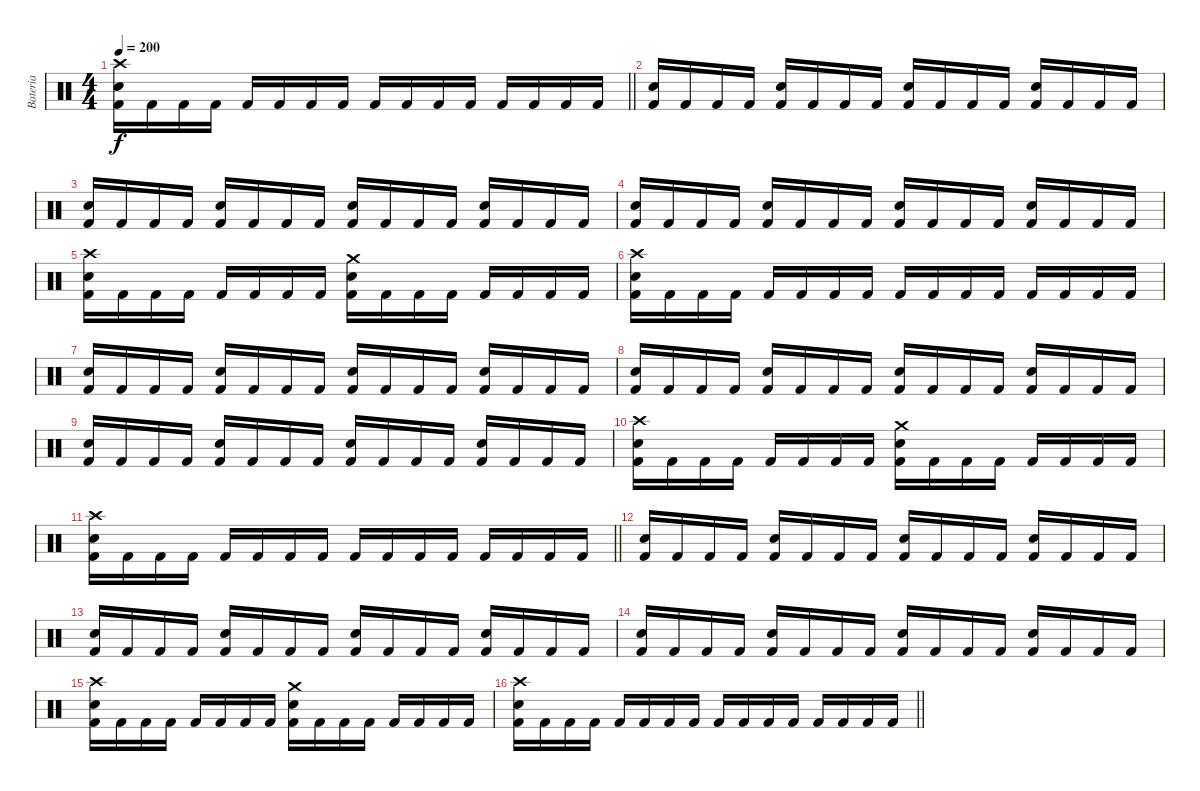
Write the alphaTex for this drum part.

\track ("Bateria" "Bateria") {instrument percussion}
\staff {score}
\articulation defaults
\ts (4 4)
\tempo 200
\clef neutral
\barLineRight lightlight
\ks c
("Crash high (hit)" "Electric Snare (hit)" "Kick (hit) 2").16{dy f} "Kick (hit) 2".16 "Kick (hit) 2".16 "Kick (hit) 2".16 "Kick (hit) 2".16 "Kick (hit) 2".16 "Kick (hit) 2".16 "Kick (hit) 2".16 "Kick (hit) 2".16 "Kick (hit) 2".16 "Kick (hit) 2".16 "Kick (hit) 2".16 "Kick (hit) 2".16 "Kick (hit) 2".16 "Kick (hit) 2".16 "Kick (hit) 2".16 |
("Electric Snare (hit)" "Kick (hit) 2").16 "Kick (hit) 2".16 "Kick (hit) 2".16 "Kick (hit) 2".16 ("Electric Snare (hit)" "Kick (hit) 2").16 "Kick (hit) 2".16 "Kick (hit) 2".16 "Kick (hit) 2".16 ("Electric Snare (hit)" "Kick (hit) 2").16 "Kick (hit) 2".16 "Kick (hit) 2".16 "Kick (hit) 2".16 ("Electric Snare (hit)" "Kick (hit) 2").16 "Kick (hit) 2".16 "Kick (hit) 2".16 "Kick (hit) 2".16 |
("Electric Snare (hit)" "Kick (hit) 2").16 "Kick (hit) 2".16 "Kick (hit) 2".16 "Kick (hit) 2".16 ("Electric Snare (hit)" "Kick (hit) 2").16 "Kick (hit) 2".16 "Kick (hit) 2".16 "Kick (hit) 2".16 ("Electric Snare (hit)" "Kick (hit) 2").16 "Kick (hit) 2".16 "Kick (hit) 2".16 "Kick (hit) 2".16 ("Electric Snare (hit)" "Kick (hit) 2").16 "Kick (hit) 2".16 "Kick (hit) 2".16 "Kick (hit) 2".16 |
("Electric Snare (hit)" "Kick (hit) 2").16 "Kick (hit) 2".16 "Kick (hit) 2".16 "Kick (hit) 2".16 ("Electric Snare (hit)" "Kick (hit) 2").16 "Kick (hit) 2".16 "Kick (hit) 2".16 "Kick (hit) 2".16 ("Electric Snare (hit)" "Kick (hit) 2").16 "Kick (hit) 2".16 "Kick (hit) 2".16 "Kick (hit) 2".16 ("Electric Snare (hit)" "Kick (hit) 2").16 "Kick (hit) 2".16 "Kick (hit) 2".16 "Kick (hit) 2".16 |
("Crash high (hit)" "Electric Snare (hit)" "Kick (hit) 2").16 "Kick (hit) 2".16 "Kick (hit) 2".16 "Kick (hit) 2".16 "Kick (hit) 2".16 "Kick (hit) 2".16 "Kick (hit) 2".16 "Kick (hit) 2".16 ("Crash medium (hit)" "Electric Snare (hit)" "Kick (hit) 2").16 "Kick (hit) 2".16 "Kick (hit) 2".16 "Kick (hit) 2".16 "Kick (hit) 2".16 "Kick (hit) 2".16 "Kick (hit) 2".16 "Kick (hit) 2".16 |
("Crash high (hit)" "Electric Snare (hit)" "Kick (hit) 2").16 "Kick (hit) 2".16 "Kick (hit) 2".16 "Kick (hit) 2".16 "Kick (hit) 2".16 "Kick (hit) 2".16 "Kick (hit) 2".16 "Kick (hit) 2".16 "Kick (hit) 2".16 "Kick (hit) 2".16 "Kick (hit) 2".16 "Kick (hit) 2".16 "Kick (hit) 2".16 "Kick (hit) 2".16 "Kick (hit) 2".16 "Kick (hit) 2".16 |
("Electric Snare (hit)" "Kick (hit) 2").16 "Kick (hit) 2".16 "Kick (hit) 2".16 "Kick (hit) 2".16 ("Electric Snare (hit)" "Kick (hit) 2").16 "Kick (hit) 2".16 "Kick (hit) 2".16 "Kick (hit) 2".16 ("Electric Snare (hit)" "Kick (hit) 2").16 "Kick (hit) 2".16 "Kick (hit) 2".16 "Kick (hit) 2".16 ("Electric Snare (hit)" "Kick (hit) 2").16 "Kick (hit) 2".16 "Kick (hit) 2".16 "Kick (hit) 2".16 |
("Electric Snare (hit)" "Kick (hit) 2").16 "Kick (hit) 2".16 "Kick (hit) 2".16 "Kick (hit) 2".16 ("Electric Snare (hit)" "Kick (hit) 2").16 "Kick (hit) 2".16 "Kick (hit) 2".16 "Kick (hit) 2".16 ("Electric Snare (hit)" "Kick (hit) 2").16 "Kick (hit) 2".16 "Kick (hit) 2".16 "Kick (hit) 2".16 ("Electric Snare (hit)" "Kick (hit) 2").16 "Kick (hit) 2".16 "Kick (hit) 2".16 "Kick (hit) 2".16 |
("Electric Snare (hit)" "Kick (hit) 2").16 "Kick (hit) 2".16 "Kick (hit) 2".16 "Kick (hit) 2".16 ("Electric Snare (hit)" "Kick (hit) 2").16 "Kick (hit) 2".16 "Kick (hit) 2".16 "Kick (hit) 2".16 ("Electric Snare (hit)" "Kick (hit) 2").16 "Kick (hit) 2".16 "Kick (hit) 2".16 "Kick (hit) 2".16 ("Electric Snare (hit)" "Kick (hit) 2").16 "Kick (hit) 2".16 "Kick (hit) 2".16 "Kick (hit) 2".16 |
("Crash high (hit)" "Electric Snare (hit)" "Kick (hit) 2").16 "Kick (hit) 2".16 "Kick (hit) 2".16 "Kick (hit) 2".16 "Kick (hit) 2".16 "Kick (hit) 2".16 "Kick (hit) 2".16 "Kick (hit) 2".16 ("Crash medium (hit)" "Electric Snare (hit)" "Kick (hit) 2").16 "Kick (hit) 2".16 "Kick (hit) 2".16 "Kick (hit) 2".16 "Kick (hit) 2".16 "Kick (hit) 2".16 "Kick (hit) 2".16 "Kick (hit) 2".16 |
\barLineRight lightlight
("Crash high (hit)" "Electric Snare (hit)" "Kick (hit) 2").16 "Kick (hit) 2".16 "Kick (hit) 2".16 "Kick (hit) 2".16 "Kick (hit) 2".16 "Kick (hit) 2".16 "Kick (hit) 2".16 "Kick (hit) 2".16 "Kick (hit) 2".16 "Kick (hit) 2".16 "Kick (hit) 2".16 "Kick (hit) 2".16 "Kick (hit) 2".16 "Kick (hit) 2".16 "Kick (hit) 2".16 "Kick (hit) 2".16 |
("Electric Snare (hit)" "Kick (hit) 2").16 "Kick (hit) 2".16 "Kick (hit) 2".16 "Kick (hit) 2".16 ("Electric Snare (hit)" "Kick (hit) 2").16 "Kick (hit) 2".16 "Kick (hit) 2".16 "Kick (hit) 2".16 ("Electric Snare (hit)" "Kick (hit) 2").16 "Kick (hit) 2".16 "Kick (hit) 2".16 "Kick (hit) 2".16 ("Electric Snare (hit)" "Kick (hit) 2").16 "Kick (hit) 2".16 "Kick (hit) 2".16 "Kick (hit) 2".16 |
("Electric Snare (hit)" "Kick (hit) 2").16 "Kick (hit) 2".16 "Kick (hit) 2".16 "Kick (hit) 2".16 ("Electric Snare (hit)" "Kick (hit) 2").16 "Kick (hit) 2".16 "Kick (hit) 2".16 "Kick (hit) 2".16 ("Electric Snare (hit)" "Kick (hit) 2").16 "Kick (hit) 2".16 "Kick (hit) 2".16 "Kick (hit) 2".16 ("Electric Snare (hit)" "Kick (hit) 2").16 "Kick (hit) 2".16 "Kick (hit) 2".16 "Kick (hit) 2".16 |
("Electric Snare (hit)" "Kick (hit) 2").16 "Kick (hit) 2".16 "Kick (hit) 2".16 "Kick (hit) 2".16 ("Electric Snare (hit)" "Kick (hit) 2").16 "Kick (hit) 2".16 "Kick (hit) 2".16 "Kick (hit) 2".16 ("Electric Snare (hit)" "Kick (hit) 2").16 "Kick (hit) 2".16 "Kick (hit) 2".16 "Kick (hit) 2".16 ("Electric Snare (hit)" "Kick (hit) 2").16 "Kick (hit) 2".16 "Kick (hit) 2".16 "Kick (hit) 2".16 |
("Crash high (hit)" "Electric Snare (hit)" "Kick (hit) 2").16 "Kick (hit) 2".16 "Kick (hit) 2".16 "Kick (hit) 2".16 "Kick (hit) 2".16 "Kick (hit) 2".16 "Kick (hit) 2".16 "Kick (hit) 2".16 ("Crash medium (hit)" "Electric Snare (hit)" "Kick (hit) 2").16 "Kick (hit) 2".16 "Kick (hit) 2".16 "Kick (hit) 2".16 "Kick (hit) 2".16 "Kick (hit) 2".16 "Kick (hit) 2".16 "Kick (hit) 2".16 |
\barLineRight lightlight
("Crash high (hit)" "Electric Snare (hit)" "Kick (hit) 2").16 "Kick (hit) 2".16 "Kick (hit) 2".16 "Kick (hit) 2".16 "Kick (hit) 2".16 "Kick (hit) 2".16 "Kick (hit) 2".16 "Kick (hit) 2".16 "Kick (hit) 2".16 "Kick (hit) 2".16 "Kick (hit) 2".16 "Kick (hit) 2".16 "Kick (hit) 2".16 "Kick (hit) 2".16 "Kick (hit) 2".16 "Kick (hit) 2".16
